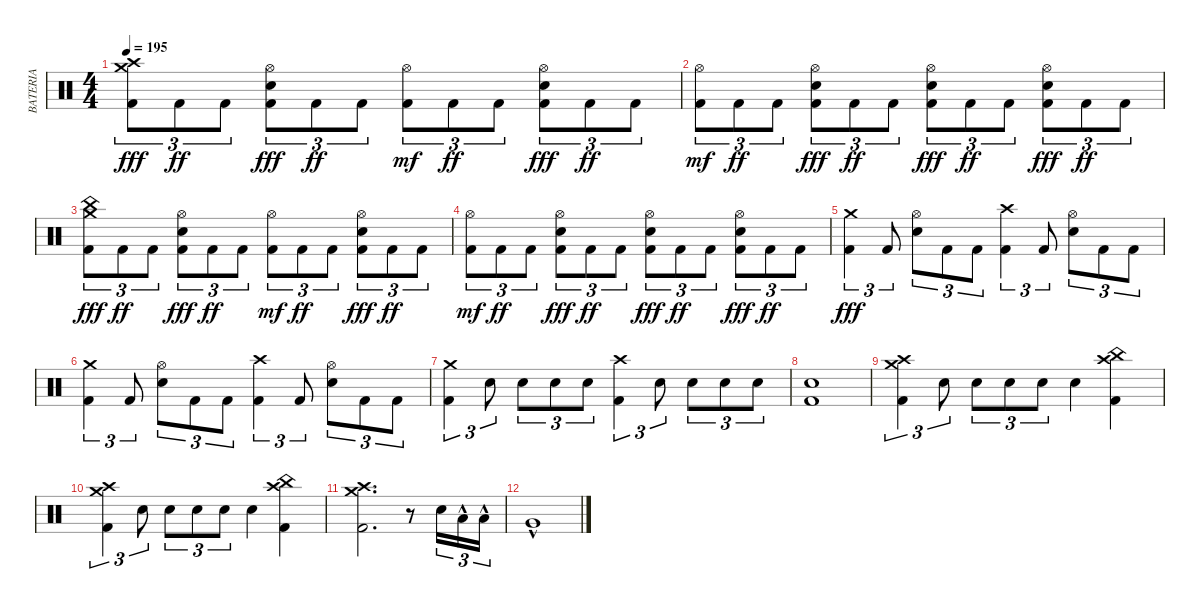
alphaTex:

\track ("BATERIA" "BATERIA") {instrument percussion}
\staff
\articulation defaults
\ts (4 4)
\tempo 195
\clef neutral
\ks c
("Kick (hit) 2" "Crash high (hit)" "Crash medium (hit)").8{tu (3 2) dy fff} "Kick (hit) 2".8{tu (3 2) dy ff} "Kick (hit) 2".8{tu (3 2)} ("Kick (hit) 2" "Electric Snare (hit)" "Hi-Hat (open)").8{tu (3 2) dy fff} "Kick (hit) 2".8{tu (3 2) dy ff} "Kick (hit) 2".8{tu (3 2)} ("Kick (hit) 2" "Hi-Hat (open)").8{tu (3 2) dy mf} "Kick (hit) 2".8{tu (3 2) dy ff} "Kick (hit) 2".8{tu (3 2)} ("Kick (hit) 2" "Electric Snare (hit)" "Hi-Hat (open)").8{tu (3 2) dy fff} "Kick (hit) 2".8{tu (3 2) dy ff} "Kick (hit) 2".8{tu (3 2)} |
("Kick (hit) 2" "Hi-Hat (open)").8{tu (3 2) dy mf} "Kick (hit) 2".8{tu (3 2) dy ff} "Kick (hit) 2".8{tu (3 2)} ("Kick (hit) 2" "Electric Snare (hit)" "Hi-Hat (open)").8{tu (3 2) dy fff} "Kick (hit) 2".8{tu (3 2) dy ff} "Kick (hit) 2".8{tu (3 2)} ("Kick (hit) 2" "Electric Snare (hit)" "Hi-Hat (open)").8{tu (3 2) dy fff} "Kick (hit) 2".8{tu (3 2) dy ff} "Kick (hit) 2".8{tu (3 2)} ("Kick (hit) 2" "Electric Snare (hit)" "Hi-Hat (open)").8{tu (3 2) dy fff} "Kick (hit) 2".8{tu (3 2) dy ff} "Kick (hit) 2".8{tu (3 2)} |
("Kick (hit) 2" "Crash medium (hit)" "China (hit)").8{tu (3 2) dy fff} "Kick (hit) 2".8{tu (3 2) dy ff} "Kick (hit) 2".8{tu (3 2)} ("Kick (hit) 2" "Electric Snare (hit)" "Hi-Hat (open)").8{tu (3 2) dy fff} "Kick (hit) 2".8{tu (3 2) dy ff} "Kick (hit) 2".8{tu (3 2)} ("Kick (hit) 2" "Hi-Hat (open)").8{tu (3 2) dy mf} "Kick (hit) 2".8{tu (3 2) dy ff} "Kick (hit) 2".8{tu (3 2)} ("Kick (hit) 2" "Electric Snare (hit)" "Hi-Hat (open)").8{tu (3 2) dy fff} "Kick (hit) 2".8{tu (3 2) dy ff} "Kick (hit) 2".8{tu (3 2)} |
("Kick (hit) 2" "Hi-Hat (open)").8{tu (3 2) dy mf} "Kick (hit) 2".8{tu (3 2) dy ff} "Kick (hit) 2".8{tu (3 2)} ("Kick (hit) 2" "Electric Snare (hit)" "Hi-Hat (open)").8{tu (3 2) dy fff} "Kick (hit) 2".8{tu (3 2) dy ff} "Kick (hit) 2".8{tu (3 2)} ("Kick (hit) 2" "Electric Snare (hit)" "Hi-Hat (open)").8{tu (3 2) dy fff} "Kick (hit) 2".8{tu (3 2) dy ff} "Kick (hit) 2".8{tu (3 2)} ("Kick (hit) 2" "Electric Snare (hit)" "Hi-Hat (open)").8{tu (3 2) dy fff} "Kick (hit) 2".8{tu (3 2) dy ff} "Kick (hit) 2".8{tu (3 2)} |
("Kick (hit) 2" "Crash medium (hit)").4{tu (3 2) dy fff} "Kick (hit) 2".8{tu (3 2)} ("Electric Snare (hit)" "Hi-Hat (open)").8{tu (3 2)} "Kick (hit) 2".8{tu (3 2)} "Kick (hit) 2".8{tu (3 2)} ("Kick (hit) 2" "Crash high (hit)").4{tu (3 2)} "Kick (hit) 2".8{tu (3 2)} ("Electric Snare (hit)" "Hi-Hat (open)").8{tu (3 2)} "Kick (hit) 2".8{tu (3 2)} "Kick (hit) 2".8{tu (3 2)} |
("Kick (hit) 2" "Crash medium (hit)").4{tu (3 2)} "Kick (hit) 2".8{tu (3 2)} ("Electric Snare (hit)" "Hi-Hat (open)").8{tu (3 2)} "Kick (hit) 2".8{tu (3 2)} "Kick (hit) 2".8{tu (3 2)} ("Kick (hit) 2" "Crash high (hit)").4{tu (3 2)} "Kick (hit) 2".8{tu (3 2)} ("Electric Snare (hit)" "Hi-Hat (open)").8{tu (3 2)} "Kick (hit) 2".8{tu (3 2)} "Kick (hit) 2".8{tu (3 2)} |
("Kick (hit) 2" "Crash medium (hit)").4{tu (3 2)} "Electric Snare (hit)".8{tu (3 2)} "Electric Snare (hit)".8{tu (3 2)} "Electric Snare (hit)".8{tu (3 2)} "Electric Snare (hit)".8{tu (3 2)} ("Kick (hit) 2" "Crash high (hit)").4{tu (3 2)} "Electric Snare (hit)".8{tu (3 2)} "Electric Snare (hit)".8{tu (3 2)} "Electric Snare (hit)".8{tu (3 2)} "Electric Snare (hit)".8{tu (3 2)} |
("Kick (hit) 2" "Electric Snare (hit)").1 |
("Kick (hit) 2" "Crash medium (hit)" "Crash high (hit)").4{tu (3 2)} "Electric Snare (hit)".8{tu (3 2)} "Electric Snare (hit)".8{tu (3 2)} "Electric Snare (hit)".8{tu (3 2)} "Electric Snare (hit)".8{tu (3 2)} "Electric Snare (hit)".4 ("Kick (hit) 2" "China (hit)" "Crash high (hit)").4 |
("Kick (hit) 2" "Crash medium (hit)" "Crash high (hit)").4{tu (3 2)} "Electric Snare (hit)".8{tu (3 2)} "Electric Snare (hit)".8{tu (3 2)} "Electric Snare (hit)".8{tu (3 2)} "Electric Snare (hit)".8{tu (3 2)} "Electric Snare (hit)".4 ("Kick (hit) 2" "China (hit)" "Crash high (hit)").4 |
("Kick (hit) 2" "Crash medium (hit)" "Crash high (hit)").2{d} r.8 "Electric Snare (hit)".16{tu (3 2)} "Low Tom (hit)"{hac}.16{tu (3 2)} "Low Tom (hit)"{hac}.16{tu (3 2)} |
"Very Low Tom (hit)"{hac}.1
